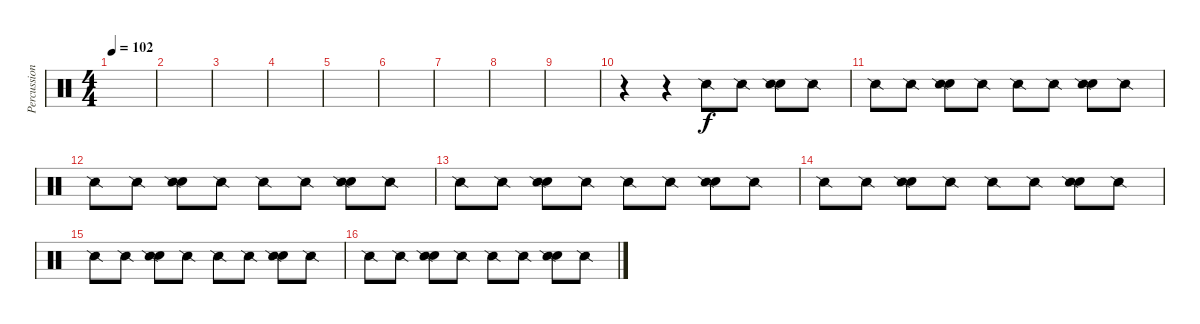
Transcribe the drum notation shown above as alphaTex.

\track ("Percussion" "Percussion") {instrument percussion}
\staff {score}
\articulation defaults
\ts (4 4)
\tempo 102
\clef neutral
\ks c
|
|
|
|
|
|
|
|
|
r.4 r.4 "Snare (side stick) 2".8 "Snare (side stick) 2".8 ("Electric Snare (hit)" "Snare (side stick) 2").8 "Snare (side stick) 2".8 |
"Snare (side stick) 2".8 "Snare (side stick) 2".8 ("Electric Snare (hit)" "Snare (side stick) 2").8 "Snare (side stick) 2".8 "Snare (side stick) 2".8 "Snare (side stick) 2".8 ("Electric Snare (hit)" "Snare (side stick) 2").8 "Snare (side stick) 2".8 |
"Snare (side stick) 2".8 "Snare (side stick) 2".8 ("Electric Snare (hit)" "Snare (side stick) 2").8 "Snare (side stick) 2".8 "Snare (side stick) 2".8 "Snare (side stick) 2".8 ("Electric Snare (hit)" "Snare (side stick) 2").8 "Snare (side stick) 2".8 |
"Snare (side stick) 2".8 "Snare (side stick) 2".8 ("Electric Snare (hit)" "Snare (side stick) 2").8 "Snare (side stick) 2".8 "Snare (side stick) 2".8 "Snare (side stick) 2".8 ("Electric Snare (hit)" "Snare (side stick) 2").8 "Snare (side stick) 2".8 |
"Snare (side stick) 2".8 "Snare (side stick) 2".8 ("Electric Snare (hit)" "Snare (side stick) 2").8 "Snare (side stick) 2".8 "Snare (side stick) 2".8 "Snare (side stick) 2".8 ("Electric Snare (hit)" "Snare (side stick) 2").8 "Snare (side stick) 2".8 |
"Snare (side stick) 2".8 "Snare (side stick) 2".8 ("Electric Snare (hit)" "Snare (side stick) 2").8 "Snare (side stick) 2".8 "Snare (side stick) 2".8 "Snare (side stick) 2".8 ("Electric Snare (hit)" "Snare (side stick) 2").8 "Snare (side stick) 2".8 |
"Snare (side stick) 2".8 "Snare (side stick) 2".8 ("Electric Snare (hit)" "Snare (side stick) 2").8 "Snare (side stick) 2".8 "Snare (side stick) 2".8 "Snare (side stick) 2".8 ("Electric Snare (hit)" "Snare (side stick) 2").8 "Snare (side stick) 2".8
